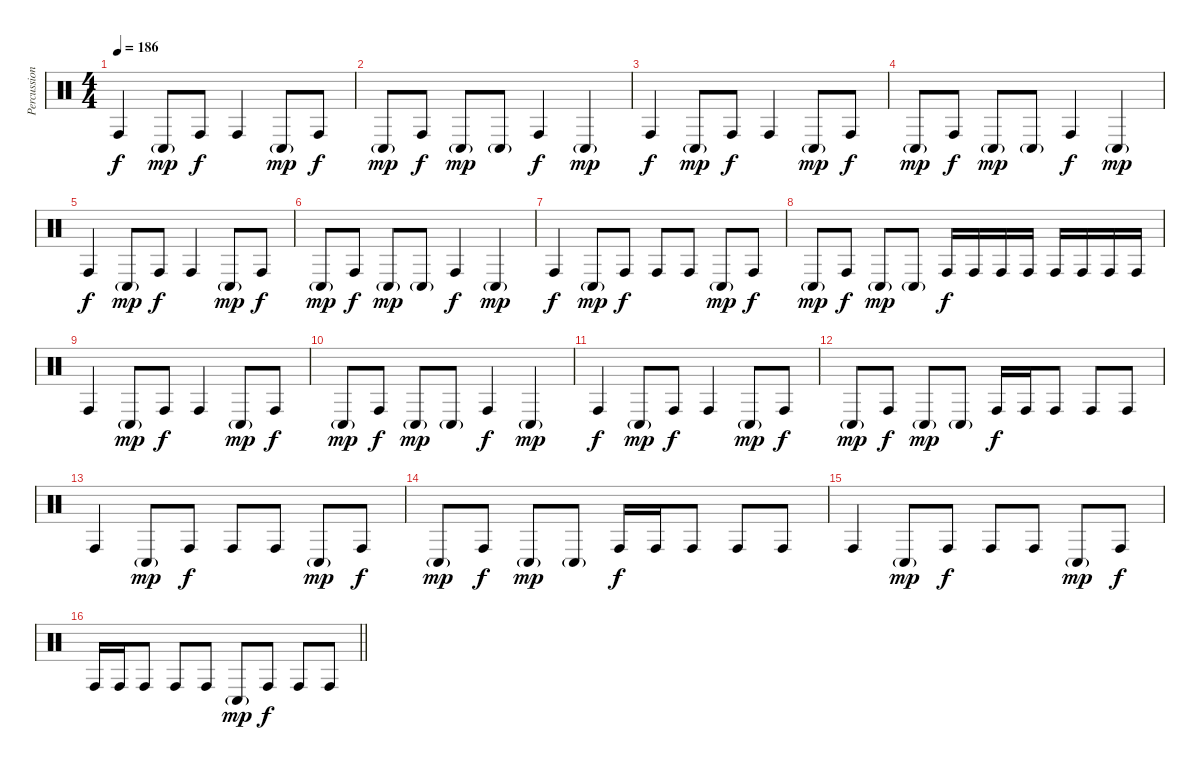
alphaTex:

\track ("Percussion" "Percussion") {instrument percussion}
\staff {score}
\articulation defaults
\ts (4 4)
\section ("" "")
\tempo 186
\clef neutral
\ks c "Conga high (hit)".4{dy f} "Conga low (hit)"{g}.8{dy mp} "Conga high (hit)".8{dy f} "Conga high (hit)".4 "Conga low (hit)"{g}.8{dy mp} "Conga high (hit)".8{dy f}
|
"Conga low (hit)"{g}.8{dy mp} "Conga high (hit)".8{dy f} "Conga low (hit)"{g}.8{dy mp} "Conga low (hit)"{g}.8 "Conga high (hit)".4{dy f} "Conga low (hit)"{g}.4{dy mp} |
"Conga high (hit)".4{dy f} "Conga low (hit)"{g}.8{dy mp} "Conga high (hit)".8{dy f} "Conga high (hit)".4 "Conga low (hit)"{g}.8{dy mp} "Conga high (hit)".8{dy f} |
"Conga low (hit)"{g}.8{dy mp} "Conga high (hit)".8{dy f} "Conga low (hit)"{g}.8{dy mp} "Conga low (hit)"{g}.8 "Conga high (hit)".4{dy f} "Conga low (hit)"{g}.4{dy mp} |
"Conga high (hit)".4{dy f} "Conga low (hit)"{g}.8{dy mp} "Conga high (hit)".8{dy f} "Conga high (hit)".4 "Conga low (hit)"{g}.8{dy mp} "Conga high (hit)".8{dy f} |
"Conga low (hit)"{g}.8{dy mp} "Conga high (hit)".8{dy f} "Conga low (hit)"{g}.8{dy mp} "Conga low (hit)"{g}.8 "Conga high (hit)".4{dy f} "Conga low (hit)"{g}.4{dy mp} |
"Conga high (hit)".4{dy f} "Conga low (hit)"{g}.8{dy mp} "Conga high (hit)".8{dy f} "Conga high (hit)".8 "Conga high (hit)".8 "Conga low (hit)"{g}.8{dy mp} "Conga high (hit)".8{dy f} |
"Conga low (hit)"{g}.8{dy mp} "Conga high (hit)".8{dy f} "Conga low (hit)"{g}.8{dy mp} "Conga low (hit)"{g}.8 "Conga high (hit)".16{dy f} "Conga high (hit)".16 "Conga high (hit)".16 "Conga high (hit)".16 "Conga high (hit)".16 "Conga high (hit)".16 "Conga high (hit)".16 "Conga high (hit)".16 |
"Conga high (hit)".4 "Conga low (hit)"{g}.8{dy mp} "Conga high (hit)".8{dy f} "Conga high (hit)".4 "Conga low (hit)"{g}.8{dy mp} "Conga high (hit)".8{dy f} |
"Conga low (hit)"{g}.8{dy mp} "Conga high (hit)".8{dy f} "Conga low (hit)"{g}.8{dy mp} "Conga low (hit)"{g}.8 "Conga high (hit)".4{dy f} "Conga low (hit)"{g}.4{dy mp} |
"Conga high (hit)".4{dy f} "Conga low (hit)"{g}.8{dy mp} "Conga high (hit)".8{dy f} "Conga high (hit)".4 "Conga low (hit)"{g}.8{dy mp} "Conga high (hit)".8{dy f} |
"Conga low (hit)"{g}.8{dy mp} "Conga high (hit)".8{dy f} "Conga low (hit)"{g}.8{dy mp} "Conga low (hit)"{g}.8 "Conga high (hit)".16{dy f} "Conga high (hit)".16 "Conga high (hit)".8 "Conga high (hit)".8 "Conga high (hit)".8 |
"Conga high (hit)".4 "Conga low (hit)"{g}.8{dy mp} "Conga high (hit)".8{dy f} "Conga high (hit)".8 "Conga high (hit)".8 "Conga low (hit)"{g}.8{dy mp} "Conga high (hit)".8{dy f} |
"Conga low (hit)"{g}.8{dy mp} "Conga high (hit)".8{dy f} "Conga low (hit)"{g}.8{dy mp} "Conga low (hit)"{g}.8 "Conga high (hit)".16{dy f} "Conga high (hit)".16 "Conga high (hit)".8 "Conga high (hit)".8 "Conga high (hit)".8 |
"Conga high (hit)".4 "Conga low (hit)"{g}.8{dy mp} "Conga high (hit)".8{dy f} "Conga high (hit)".8 "Conga high (hit)".8 "Conga low (hit)"{g}.8{dy mp} "Conga high (hit)".8{dy f} |
\barLineRight lightlight "Conga high (hit)".16 "Conga high (hit)".16 "Conga high (hit)".8 "Conga high (hit)".8 "Conga high (hit)".8 "Conga low (hit)"{g}.8{dy mp} "Conga high (hit)".8{dy f} "Conga high (hit)".8 "Conga high (hit)".8
